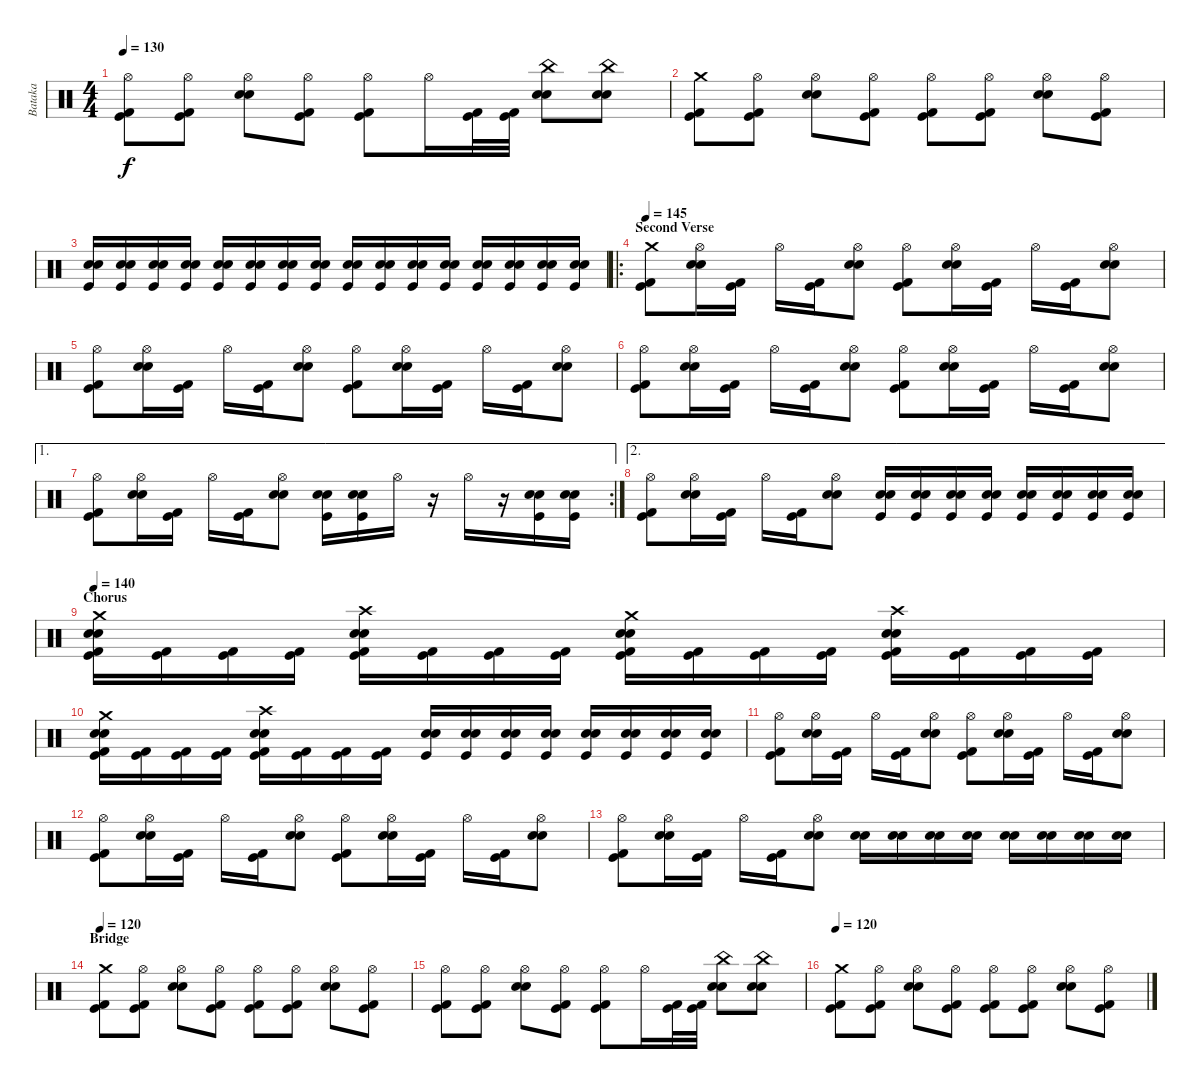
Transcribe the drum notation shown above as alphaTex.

\track ("Bataka" "Bataka") {instrument percussion}
\staff {score}
\articulation defaults
\ts (4 4)
\tempo 130
\clef neutral
\ks c
("Hi-Hat (open)" "Kick (hit) 2" "Kick (hit)").8{dy f} ("Hi-Hat (open)" "Kick (hit) 2" "Kick (hit)").8 ("Hi-Hat (open)" "Snare (hit) 2" "Snare (hit) 2").8 ("Hi-Hat (open)" "Kick (hit) 2" "Kick (hit)").8 ("Hi-Hat (open)" "Kick (hit) 2" "Kick (hit)").8 "Hi-Hat (open)".16 ("Kick (hit) 2" "Kick (hit)").32 ("Kick (hit) 2" "Kick (hit)").32 ("China (hit)" "Snare (hit) 2" "Snare (hit) 2").8 ("China (hit)" "Snare (hit) 2" "Snare (hit) 2").8 |
("Crash medium (hit)" "Kick (hit) 2" "Kick (hit)").8 ("Hi-Hat (open)" "Kick (hit) 2" "Kick (hit)").8 ("Hi-Hat (open)" "Snare (hit) 2" "Snare (hit) 2").8 ("Hi-Hat (open)" "Kick (hit) 2" "Kick (hit)").8 ("Hi-Hat (open)" "Kick (hit) 2" "Kick (hit)").8 ("Hi-Hat (open)" "Kick (hit) 2" "Kick (hit)").8 ("Hi-Hat (open)" "Snare (hit) 2" "Snare (hit) 2").8 ("Hi-Hat (open)" "Kick (hit) 2" "Kick (hit)").8 |
("Snare (hit) 2" "Snare (hit) 2" "Kick (hit)").16 ("Snare (hit) 2" "Snare (hit) 2" "Kick (hit)").16 ("Snare (hit) 2" "Snare (hit) 2" "Kick (hit)").16 ("Snare (hit) 2" "Snare (hit) 2" "Kick (hit)").16 ("Snare (hit) 2" "Snare (hit) 2" "Kick (hit)").16 ("Snare (hit) 2" "Snare (hit) 2" "Kick (hit)").16 ("Snare (hit) 2" "Snare (hit) 2" "Kick (hit)").16 ("Snare (hit) 2" "Snare (hit) 2" "Kick (hit)").16 ("Snare (hit) 2" "Snare (hit) 2" "Kick (hit)").16 ("Snare (hit) 2" "Snare (hit) 2" "Kick (hit)").16 ("Snare (hit) 2" "Snare (hit) 2" "Kick (hit)").16 ("Snare (hit) 2" "Snare (hit) 2" "Kick (hit)").16 ("Snare (hit) 2" "Snare (hit) 2" "Kick (hit)").16 ("Snare (hit) 2" "Snare (hit) 2" "Kick (hit)").16 ("Snare (hit) 2" "Snare (hit) 2" "Kick (hit)").16 ("Snare (hit) 2" "Snare (hit) 2" "Kick (hit)").16 |
\ro
\section ("" "Second Verse")
\tempo 145
("Crash medium (hit)" "Kick (hit) 2" "Kick (hit)").8 ("Hi-Hat (open)" "Snare (hit) 2" "Snare (hit) 2").16 ("Kick (hit) 2" "Kick (hit)").16 "Hi-Hat (open)".16 ("Kick (hit) 2" "Kick (hit)").16 ("Hi-Hat (open)" "Snare (hit) 2" "Snare (hit) 2").8 ("Hi-Hat (open)" "Kick (hit) 2" "Kick (hit)").8 ("Hi-Hat (open)" "Snare (hit) 2" "Snare (hit) 2").16 ("Kick (hit) 2" "Kick (hit)").16 "Hi-Hat (open)".16 ("Kick (hit) 2" "Kick (hit)").16 ("Hi-Hat (open)" "Snare (hit) 2" "Snare (hit) 2").8 |
("Hi-Hat (open)" "Kick (hit) 2" "Kick (hit)").8 ("Hi-Hat (open)" "Snare (hit) 2" "Snare (hit) 2").16 ("Kick (hit) 2" "Kick (hit)").16 "Hi-Hat (open)".16 ("Kick (hit) 2" "Kick (hit)").16 ("Hi-Hat (open)" "Snare (hit) 2" "Snare (hit) 2").8 ("Hi-Hat (open)" "Kick (hit) 2" "Kick (hit)").8 ("Hi-Hat (open)" "Snare (hit) 2" "Snare (hit) 2").16 ("Kick (hit) 2" "Kick (hit)").16 "Hi-Hat (open)".16 ("Kick (hit) 2" "Kick (hit)").16 ("Hi-Hat (open)" "Snare (hit) 2" "Snare (hit) 2").8 |
("Hi-Hat (open)" "Kick (hit) 2" "Kick (hit)").8 ("Hi-Hat (open)" "Snare (hit) 2" "Snare (hit) 2").16 ("Kick (hit) 2" "Kick (hit)").16 "Hi-Hat (open)".16 ("Kick (hit) 2" "Kick (hit)").16 ("Hi-Hat (open)" "Snare (hit) 2" "Snare (hit) 2").8 ("Hi-Hat (open)" "Kick (hit) 2" "Kick (hit)").8 ("Hi-Hat (open)" "Snare (hit) 2" "Snare (hit) 2").16 ("Kick (hit) 2" "Kick (hit)").16 "Hi-Hat (open)".16 ("Kick (hit) 2" "Kick (hit)").16 ("Hi-Hat (open)" "Snare (hit) 2" "Snare (hit) 2").8 |
\ae 1
\rc 2
("Hi-Hat (open)" "Kick (hit) 2" "Kick (hit)").8 ("Hi-Hat (open)" "Snare (hit) 2" "Snare (hit) 2").16 ("Kick (hit) 2" "Kick (hit)").16 "Hi-Hat (open)".16 ("Kick (hit) 2" "Kick (hit)").16 ("Hi-Hat (open)" "Snare (hit) 2" "Snare (hit) 2").8 ("Snare (hit) 2" "Snare (hit) 2" "Kick (hit)").16 ("Snare (hit) 2" "Snare (hit) 2" "Kick (hit)").16 "Hi-Hat (open)".16 r.16 "Hi-Hat (open)".16 r.16 ("Snare (hit) 2" "Snare (hit) 2" "Kick (hit)").16 ("Snare (hit) 2" "Snare (hit) 2" "Kick (hit)").16 |
\ae 2
("Hi-Hat (open)" "Kick (hit) 2" "Kick (hit)").8 ("Hi-Hat (open)" "Snare (hit) 2" "Snare (hit) 2").16 ("Kick (hit) 2" "Kick (hit)").16 "Hi-Hat (open)".16 ("Kick (hit) 2" "Kick (hit)").16 ("Hi-Hat (open)" "Snare (hit) 2" "Snare (hit) 2").8 ("Snare (hit) 2" "Snare (hit) 2" "Kick (hit)").16 ("Snare (hit) 2" "Snare (hit) 2" "Kick (hit)").16 ("Snare (hit) 2" "Snare (hit) 2" "Kick (hit)").16 ("Snare (hit) 2" "Snare (hit) 2" "Kick (hit)").16 ("Snare (hit) 2" "Snare (hit) 2" "Kick (hit)").16 ("Snare (hit) 2" "Snare (hit) 2" "Kick (hit)").16 ("Snare (hit) 2" "Snare (hit) 2" "Kick (hit)").16 ("Snare (hit) 2" "Snare (hit) 2" "Kick (hit)").16 |
\section ("" "Chorus")
\tempo 140
("Crash medium (hit)" "Snare (hit) 2" "Snare (hit) 2" "Kick (hit) 2" "Kick (hit)").16 ("Kick (hit) 2" "Kick (hit)").16 ("Kick (hit) 2" "Kick (hit)").16 ("Kick (hit) 2" "Kick (hit)").16 ("Crash high (hit)" "Snare (hit) 2" "Snare (hit) 2" "Kick (hit) 2" "Kick (hit)").16 ("Kick (hit) 2" "Kick (hit)").16 ("Kick (hit) 2" "Kick (hit)").16 ("Kick (hit) 2" "Kick (hit)").16 ("Crash medium (hit)" "Snare (hit) 2" "Snare (hit) 2" "Kick (hit) 2" "Kick (hit)").16 ("Kick (hit) 2" "Kick (hit)").16 ("Kick (hit) 2" "Kick (hit)").16 ("Kick (hit) 2" "Kick (hit)").16 ("Crash high (hit)" "Snare (hit) 2" "Snare (hit) 2" "Kick (hit) 2" "Kick (hit)").16 ("Kick (hit) 2" "Kick (hit)").16 ("Kick (hit) 2" "Kick (hit)").16 ("Kick (hit) 2" "Kick (hit)").16 |
("Crash medium (hit)" "Snare (hit) 2" "Snare (hit) 2" "Kick (hit) 2" "Kick (hit)").16 ("Kick (hit) 2" "Kick (hit)").16 ("Kick (hit) 2" "Kick (hit)").16 ("Kick (hit) 2" "Kick (hit)").16 ("Crash high (hit)" "Snare (hit) 2" "Snare (hit) 2" "Kick (hit) 2" "Kick (hit)").16 ("Kick (hit) 2" "Kick (hit)").16 ("Kick (hit) 2" "Kick (hit)").16 ("Kick (hit) 2" "Kick (hit)").16 ("Snare (hit) 2" "Snare (hit) 2" "Kick (hit)").16 ("Snare (hit) 2" "Snare (hit) 2" "Kick (hit)").16 ("Snare (hit) 2" "Snare (hit) 2" "Kick (hit)").16 ("Snare (hit) 2" "Snare (hit) 2" "Kick (hit)").16 ("Snare (hit) 2" "Snare (hit) 2" "Kick (hit)").16 ("Snare (hit) 2" "Snare (hit) 2" "Kick (hit)").16 ("Snare (hit) 2" "Snare (hit) 2" "Kick (hit)").16 ("Snare (hit) 2" "Snare (hit) 2" "Kick (hit)").16 |
("Hi-Hat (open)" "Kick (hit) 2" "Kick (hit)").8 ("Hi-Hat (open)" "Snare (hit) 2" "Snare (hit) 2").16 ("Kick (hit) 2" "Kick (hit)").16 "Hi-Hat (open)".16 ("Kick (hit) 2" "Kick (hit)").16 ("Hi-Hat (open)" "Snare (hit) 2" "Snare (hit) 2").8 ("Hi-Hat (open)" "Kick (hit) 2" "Kick (hit)").8 ("Hi-Hat (open)" "Snare (hit) 2" "Snare (hit) 2").16 ("Kick (hit) 2" "Kick (hit)").16 "Hi-Hat (open)".16 ("Kick (hit) 2" "Kick (hit)").16 ("Hi-Hat (open)" "Snare (hit) 2" "Snare (hit) 2").8 |
("Hi-Hat (open)" "Kick (hit) 2" "Kick (hit)").8 ("Hi-Hat (open)" "Snare (hit) 2" "Snare (hit) 2").16 ("Kick (hit) 2" "Kick (hit)").16 "Hi-Hat (open)".16 ("Kick (hit) 2" "Kick (hit)").16 ("Hi-Hat (open)" "Snare (hit) 2" "Snare (hit) 2").8 ("Hi-Hat (open)" "Kick (hit) 2" "Kick (hit)").8 ("Hi-Hat (open)" "Snare (hit) 2" "Snare (hit) 2").16 ("Kick (hit) 2" "Kick (hit)").16 "Hi-Hat (open)".16 ("Kick (hit) 2" "Kick (hit)").16 ("Hi-Hat (open)" "Snare (hit) 2" "Snare (hit) 2").8 |
("Hi-Hat (open)" "Kick (hit) 2" "Kick (hit)").8 ("Hi-Hat (open)" "Snare (hit) 2" "Snare (hit) 2").16 ("Kick (hit) 2" "Kick (hit)").16 "Hi-Hat (open)".16 ("Kick (hit) 2" "Kick (hit)").16 ("Hi-Hat (open)" "Snare (hit) 2" "Snare (hit) 2").8 ("Snare (hit) 2" "Snare (hit) 2").16 ("Snare (hit) 2" "Snare (hit) 2").16 ("Snare (hit) 2" "Snare (hit) 2").16 ("Snare (hit) 2" "Snare (hit) 2").16 ("Snare (hit) 2" "Snare (hit) 2").16 ("Snare (hit) 2" "Snare (hit) 2").16 ("Snare (hit) 2" "Snare (hit) 2").16 ("Snare (hit) 2" "Snare (hit) 2").16 |
\section ("" "Bridge")
\tempo 120
("Crash medium (hit)" "Kick (hit) 2" "Kick (hit)").8 ("Hi-Hat (open)" "Kick (hit) 2" "Kick (hit)").8 ("Hi-Hat (open)" "Snare (hit) 2" "Snare (hit) 2").8 ("Hi-Hat (open)" "Kick (hit) 2" "Kick (hit)").8 ("Hi-Hat (open)" "Kick (hit) 2" "Kick (hit)").8 ("Hi-Hat (open)" "Kick (hit) 2" "Kick (hit)").8 ("Hi-Hat (open)" "Snare (hit) 2" "Snare (hit) 2").8 ("Hi-Hat (open)" "Kick (hit) 2" "Kick (hit)").8 |
("Hi-Hat (open)" "Kick (hit) 2" "Kick (hit)").8 ("Hi-Hat (open)" "Kick (hit) 2" "Kick (hit)").8 ("Hi-Hat (open)" "Snare (hit) 2" "Snare (hit) 2").8 ("Hi-Hat (open)" "Kick (hit) 2" "Kick (hit)").8 ("Hi-Hat (open)" "Kick (hit) 2" "Kick (hit)").8 "Hi-Hat (open)".16 ("Kick (hit) 2" "Kick (hit)").32 ("Kick (hit) 2" "Kick (hit)").32 ("China (hit)" "Snare (hit) 2" "Snare (hit) 2").8 ("China (hit)" "Snare (hit) 2" "Snare (hit) 2").8 |
\tempo 120
("Crash medium (hit)" "Kick (hit) 2" "Kick (hit)").8 ("Hi-Hat (open)" "Kick (hit) 2" "Kick (hit)").8 ("Hi-Hat (open)" "Snare (hit) 2" "Snare (hit) 2").8 ("Hi-Hat (open)" "Kick (hit) 2" "Kick (hit)").8 ("Hi-Hat (open)" "Kick (hit) 2" "Kick (hit)").8 ("Hi-Hat (open)" "Kick (hit) 2" "Kick (hit)").8 ("Hi-Hat (open)" "Snare (hit) 2" "Snare (hit) 2").8 ("Hi-Hat (open)" "Kick (hit) 2" "Kick (hit)").8
